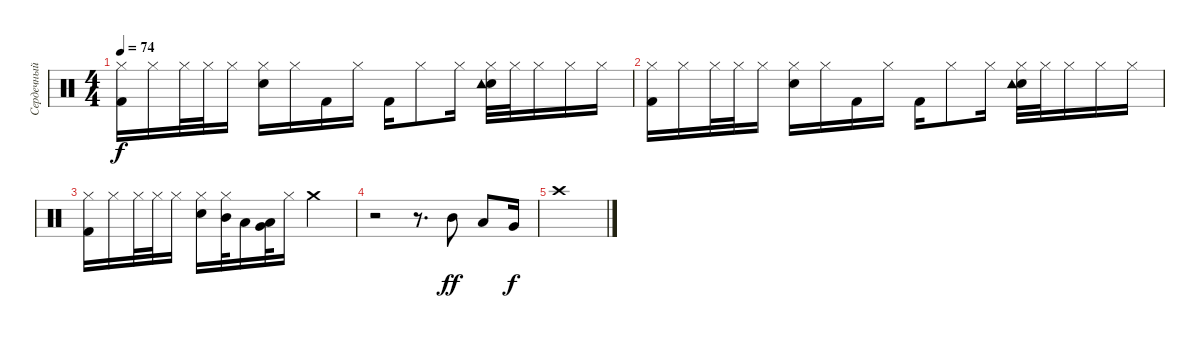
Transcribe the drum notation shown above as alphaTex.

\track ("Сердечный (Ударные)" "Сердечный ") {instrument percussion}
\staff {score}
\articulation defaults
\ts (4 4)
\tempo 74
\clef neutral
\ks c
("Kick (hit) 2" "Hi-Hat (closed)").16{dy f} "Hi-Hat (closed)".16 "Hi-Hat (closed)".32 "Hi-Hat (closed)".32 "Hi-Hat (closed)".16 ("Electric Snare (hit)" "Hi-Hat (closed)").16 "Hi-Hat (closed)".16 "Kick (hit) 2".16 "Hi-Hat (closed)".16 "Kick (hit) 2".16 "Hi-Hat (closed)".8 "Hi-Hat (closed)".16 ("Electric Snare (hit)" "Tambourine (hit)" "Hi-Hat (closed)").32 "Hi-Hat (closed)".32 "Hi-Hat (closed)".16 "Hi-Hat (closed)".16 "Hi-Hat (closed)".16 |
("Kick (hit) 2" "Hi-Hat (closed)").16 "Hi-Hat (closed)".16 "Hi-Hat (closed)".32 "Hi-Hat (closed)".32 "Hi-Hat (closed)".16 ("Electric Snare (hit)" "Hi-Hat (closed)").16 "Hi-Hat (closed)".16 "Kick (hit) 2".16 "Hi-Hat (closed)".16 "Kick (hit) 2".16 "Hi-Hat (closed)".8 "Hi-Hat (closed)".16 ("Electric Snare (hit)" "Tambourine (hit)" "Hi-Hat (closed)").32 "Hi-Hat (closed)".32 "Hi-Hat (closed)".16 "Hi-Hat (closed)".16 "Hi-Hat (closed)".16 |
("Kick (hit) 2" "Hi-Hat (closed)").16 "Hi-Hat (closed)".16 "Hi-Hat (closed)".32 "Hi-Hat (closed)".32 "Hi-Hat (closed)".16 ("Electric Snare (hit)" "Hi-Hat (closed)").16 ("Mid Tom (hit)" "Hi-Hat (closed)").32 "Low Tom (hit)".16 ("Very Low Tom (hit)" "Low Floor Tom (hit)").32 "Hi-Hat (closed)".16 "Crash medium (hit)".2 |
r.2 r.8{d} "Mid Tom (hit)".8{dy ff} "Low Tom (hit)".8 "Very Low Tom (hit)".16{dy f} |
"Crash high (hit)".1
